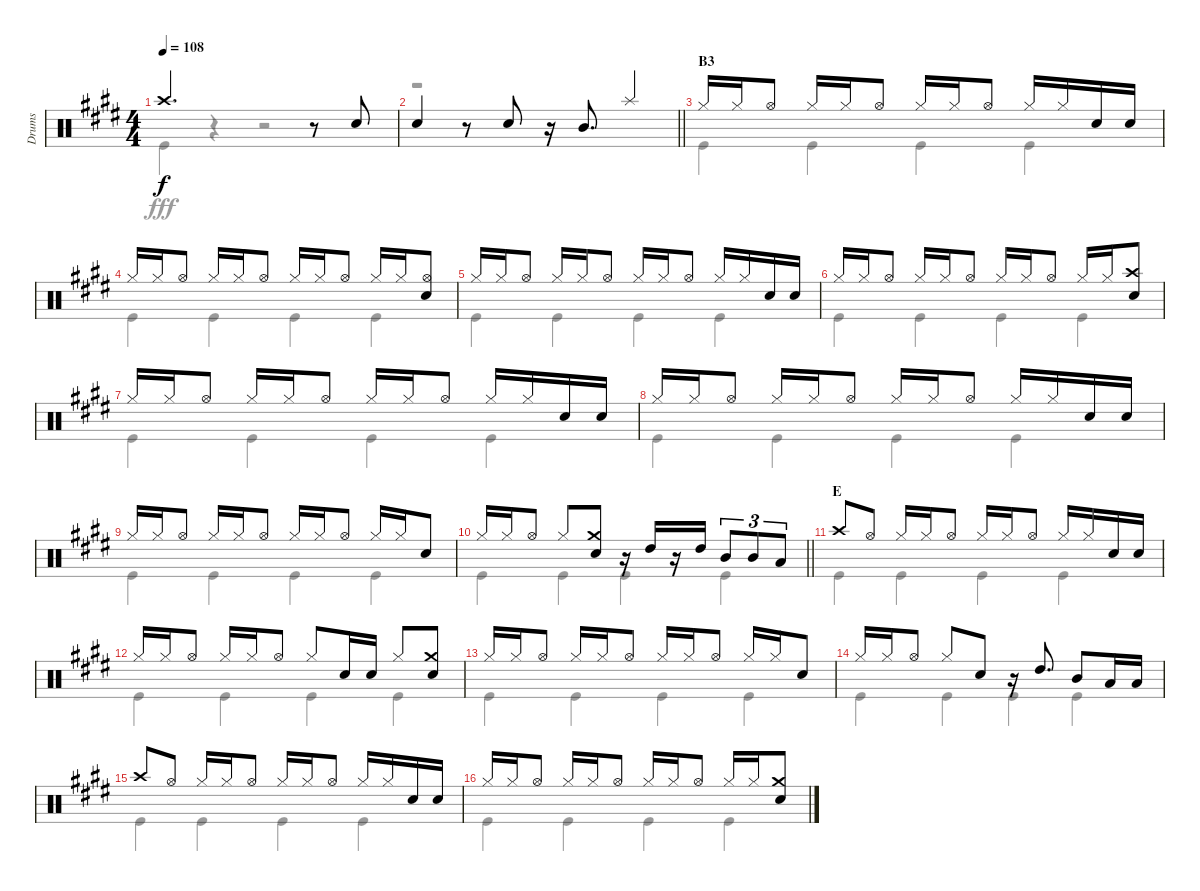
\track ("Drums" "Drums") {instrument percussion}
\staff {score}
\articulation defaults
\voice
\ts (4 4)
\tempo 108
\clef neutral
\ks e "Crash high (hit)".2{d dy f}
r.8 "Snare (hit) 2".8 |
\barLineRight lightlight "Snare (hit) 2".4
r.8 "Snare (hit) 2".8 r.16 "Mid Tom (hit)".8{d} "Splash (hit)".4 |
\section ("" "B3")
"Hi-Hat (closed)".16 "Hi-Hat (closed)".16 "Hi-Hat (open)".8 "Hi-Hat (closed)".16 "Hi-Hat (closed)".16 "Hi-Hat (open)".8 "Hi-Hat (closed)".16 "Hi-Hat (closed)".16 "Hi-Hat (open)".8 "Hi-Hat (closed)".16 "Hi-Hat (closed)".16 "Snare (hit) 2".16 "Snare (hit) 2".16 |
"Hi-Hat (closed)".16 "Hi-Hat (closed)".16 "Hi-Hat (open)".8 "Hi-Hat (closed)".16 "Hi-Hat (closed)".16 "Hi-Hat (open)".8 "Hi-Hat (closed)".16 "Hi-Hat (closed)".16 "Hi-Hat (open)".8 "Hi-Hat (closed)".16 "Hi-Hat (closed)".16 ("Hi-Hat (open)" "Snare (hit) 2").8 |
"Hi-Hat (closed)".16 "Hi-Hat (closed)".16 "Hi-Hat (open)".8 "Hi-Hat (closed)".16 "Hi-Hat (closed)".16 "Hi-Hat (open)".8 "Hi-Hat (closed)".16 "Hi-Hat (closed)".16 "Hi-Hat (open)".8 "Hi-Hat (closed)".16 "Hi-Hat (closed)".16 "Snare (hit) 2".16 "Snare (hit) 2".16 |
"Hi-Hat (closed)".16 "Hi-Hat (closed)".16 "Hi-Hat (open)".8 "Hi-Hat (closed)".16 "Hi-Hat (closed)".16 "Hi-Hat (open)".8 "Hi-Hat (closed)".16 "Hi-Hat (closed)".16 "Hi-Hat (open)".8 "Hi-Hat (closed)".16 "Hi-Hat (closed)".16 ("Crash high (hit)" "Snare (hit) 2").8 |
"Hi-Hat (closed)".16 "Hi-Hat (closed)".16 "Hi-Hat (open)".8 "Hi-Hat (closed)".16 "Hi-Hat (closed)".16 "Hi-Hat (open)".8 "Hi-Hat (closed)".16 "Hi-Hat (closed)".16 "Hi-Hat (open)".8 "Hi-Hat (closed)".16 "Hi-Hat (closed)".16 "Snare (hit) 2".16 "Snare (hit) 2".16 |
"Hi-Hat (closed)".16 "Hi-Hat (closed)".16 "Hi-Hat (open)".8 "Hi-Hat (closed)".16 "Hi-Hat (closed)".16 "Hi-Hat (open)".8 "Hi-Hat (closed)".16 "Hi-Hat (closed)".16 "Hi-Hat (open)".8 "Hi-Hat (closed)".16 "Hi-Hat (closed)".16 "Snare (hit) 2".16 "Snare (hit) 2".16 |
"Hi-Hat (closed)".16 "Hi-Hat (closed)".16 "Hi-Hat (open)".8 "Hi-Hat (closed)".16 "Hi-Hat (closed)".16 "Hi-Hat (open)".8 "Hi-Hat (closed)".16 "Hi-Hat (closed)".16 "Hi-Hat (open)".8 "Hi-Hat (closed)".16 "Hi-Hat (closed)".16 "Snare (hit) 2".8 |
\barLineRight lightlight "Hi-Hat (closed)".16 "Hi-Hat (closed)".16 "Hi-Hat (open)".8 "Hi-Hat (closed)".8
("Crash medium (hit)" "Snare (hit) 2").8 r.16 "High Tom (hit)".16 r.16 "High Tom (hit)".16 "Mid Tom (hit)".8{tu (3 2)} "Mid Tom (hit)".8{tu (3 2)} "Low Tom (hit)".8{tu (3 2)} |
\section ("" "E")
"Crash high (hit)".8 "Hi-Hat (open)".8 "Hi-Hat (closed)".16 "Hi-Hat (closed)".16 "Hi-Hat (open)".8 "Hi-Hat (closed)".16 "Hi-Hat (closed)".16 "Hi-Hat (open)".8 "Hi-Hat (closed)".16 "Hi-Hat (closed)".16 "Snare (hit) 2".16 "Snare (hit) 2".16 |
"Hi-Hat (closed)".16 "Hi-Hat (closed)".16 "Hi-Hat (open)".8 "Hi-Hat (closed)".16 "Hi-Hat (closed)".16 "Hi-Hat (open)".8 "Hi-Hat (closed)".8 "Snare (hit) 2".16 "Snare (hit) 2".16 "Hi-Hat (closed)".8 ("Crash medium (hit)" "Snare (hit) 2").8 |
"Hi-Hat (closed)".16 "Hi-Hat (closed)".16 "Hi-Hat (open)".8 "Hi-Hat (closed)".16 "Hi-Hat (closed)".16 "Hi-Hat (open)".8 "Hi-Hat (closed)".16 "Hi-Hat (closed)".16 "Hi-Hat (open)".8 "Hi-Hat (closed)".16 "Hi-Hat (closed)".16 "Snare (hit) 2".8 |
"Hi-Hat (closed)".16 "Hi-Hat (closed)".16 "Hi-Hat (open)".8 "Hi-Hat (closed)".8 "Snare (hit) 2".8 r.16 "High Tom (hit)".8{d} "Mid Tom (hit)".8 "Low Tom (hit)".16 "Low Tom (hit)".16 |
"Crash high (hit)".8 "Hi-Hat (open)".8 "Hi-Hat (closed)".16 "Hi-Hat (closed)".16 "Hi-Hat (open)".8 "Hi-Hat (closed)".16 "Hi-Hat (closed)".16 "Hi-Hat (open)".8 "Hi-Hat (closed)".16 "Hi-Hat (closed)".16 "Snare (hit) 2".16 "Snare (hit) 2".16 |
"Hi-Hat (closed)".16 "Hi-Hat (closed)".16 "Hi-Hat (open)".8 "Hi-Hat (closed)".16 "Hi-Hat (closed)".16 "Hi-Hat (open)".8 "Hi-Hat (closed)".16 "Hi-Hat (closed)".16 "Hi-Hat (open)".8 "Hi-Hat (closed)".16 "Hi-Hat (closed)".16 ("Crash medium (hit)" "Snare (hit) 2").8
\voice
\clef neutral
\ottava regular
\simile none
\ks e "Kick (hit)".4{dy fff}
r.4 r.2 |
\barLineRight lightlight
r.1 |
"Kick (hit)".4 "Kick (hit)".4 "Kick (hit)".4 "Kick (hit)".4 |
"Kick (hit)".4 "Kick (hit)".4 "Kick (hit)".4 "Kick (hit)".4 |
"Kick (hit)".4 "Kick (hit)".4 "Kick (hit)".4 "Kick (hit)".4 |
"Kick (hit)".4 "Kick (hit)".4 "Kick (hit)".4 "Kick (hit)".4 |
"Kick (hit)".4 "Kick (hit)".4 "Kick (hit)".4 "Kick (hit)".4 |
"Kick (hit)".4 "Kick (hit)".4 "Kick (hit)".4 "Kick (hit)".4 |
"Kick (hit)".4 "Kick (hit)".4 "Kick (hit)".4 "Kick (hit)".4 |
\barLineRight lightlight "Kick (hit)".4 "Kick (hit)".4 "Kick (hit)".4 "Kick (hit)".4
|
"Kick (hit)".4 "Kick (hit)".4 "Kick (hit)".4 "Kick (hit)".4 |
"Kick (hit)".4 "Kick (hit)".4 "Kick (hit)".4 "Kick (hit)".4 |
"Kick (hit)".4 "Kick (hit)".4 "Kick (hit)".4 "Kick (hit)".4 |
"Kick (hit)".4 "Kick (hit)".4 "Kick (hit)".4 "Kick (hit)".4 |
"Kick (hit)".4 "Kick (hit)".4 "Kick (hit)".4 "Kick (hit)".4 |
"Kick (hit)".4 "Kick (hit)".4 "Kick (hit)".4 "Kick (hit)".4
